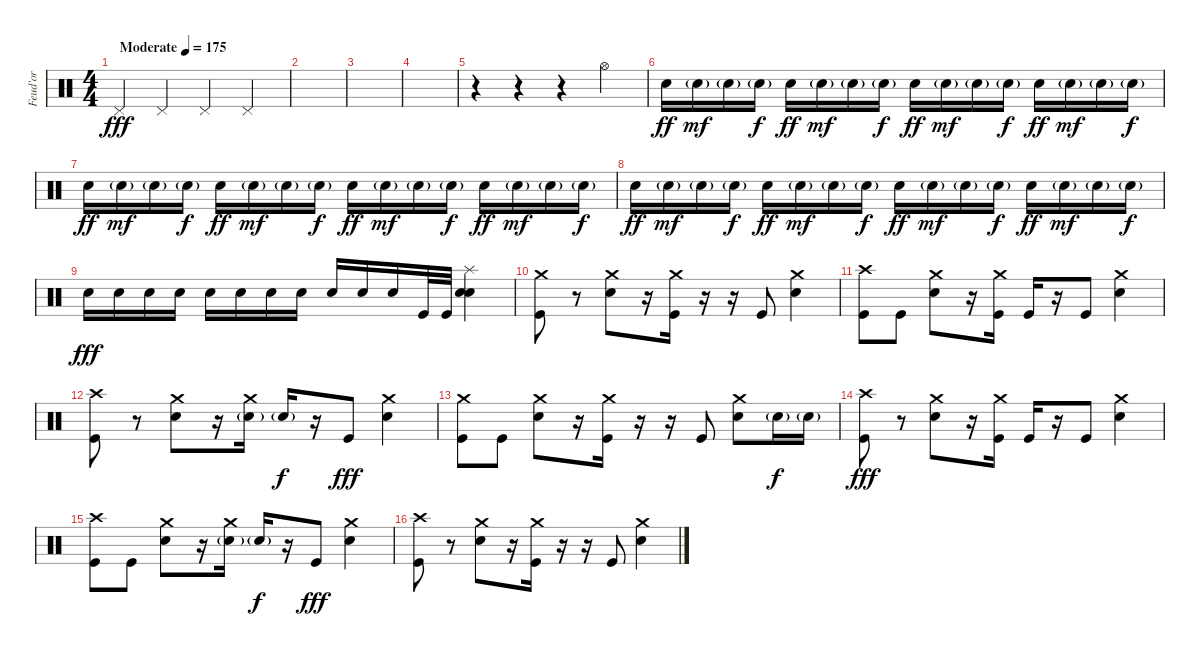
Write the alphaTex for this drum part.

\track ("Feud'or" "Feud'or") {instrument percussion}
\staff {score}
\articulation defaults
\ts (4 4)
\tempo (175 "Moderate")
\clef neutral
\ks c "Pedal Hi-Hat (hit)".4{dy fff} "Pedal Hi-Hat (hit)".4 "Pedal Hi-Hat (hit)".4 "Pedal Hi-Hat (hit)".4
|
|
|
|
r.4 r.4 r.4 "Hi-Hat (open)".4 |
"Electric Snare (hit)".16{dy ff} "Electric Snare (hit)"{g}.16{dy mf} "Electric Snare (hit)"{g}.16 "Electric Snare (hit)"{g}.16{dy f} "Electric Snare (hit)".16{dy ff} "Electric Snare (hit)"{g}.16{dy mf} "Electric Snare (hit)"{g}.16 "Electric Snare (hit)"{g}.16{dy f} "Electric Snare (hit)".16{dy ff} "Electric Snare (hit)"{g}.16{dy mf} "Electric Snare (hit)"{g}.16 "Electric Snare (hit)"{g}.16{dy f} "Electric Snare (hit)".16{dy ff} "Electric Snare (hit)"{g}.16{dy mf} "Electric Snare (hit)"{g}.16 "Electric Snare (hit)"{g}.16{dy f} |
"Electric Snare (hit)".16{dy ff} "Electric Snare (hit)"{g}.16{dy mf} "Electric Snare (hit)"{g}.16 "Electric Snare (hit)"{g}.16{dy f} "Electric Snare (hit)".16{dy ff} "Electric Snare (hit)"{g}.16{dy mf} "Electric Snare (hit)"{g}.16 "Electric Snare (hit)"{g}.16{dy f} "Electric Snare (hit)".16{dy ff} "Electric Snare (hit)"{g}.16{dy mf} "Electric Snare (hit)"{g}.16 "Electric Snare (hit)"{g}.16{dy f} "Electric Snare (hit)".16{dy ff} "Electric Snare (hit)"{g}.16{dy mf} "Electric Snare (hit)"{g}.16 "Electric Snare (hit)"{g}.16{dy f} |
"Electric Snare (hit)".16{dy ff} "Electric Snare (hit)"{g}.16{dy mf} "Electric Snare (hit)"{g}.16 "Electric Snare (hit)"{g}.16{dy f} "Electric Snare (hit)".16{dy ff} "Electric Snare (hit)"{g}.16{dy mf} "Electric Snare (hit)"{g}.16 "Electric Snare (hit)"{g}.16{dy f} "Electric Snare (hit)".16{dy ff} "Electric Snare (hit)"{g}.16{dy mf} "Electric Snare (hit)"{g}.16 "Electric Snare (hit)"{g}.16{dy f} "Electric Snare (hit)".16{dy ff} "Electric Snare (hit)"{g}.16{dy mf} "Electric Snare (hit)"{g}.16 "Electric Snare (hit)"{g}.16{dy f} |
"Electric Snare (hit)".16{dy fff} "Electric Snare (hit)".16 "Electric Snare (hit)".16 "Electric Snare (hit)".16 "Electric Snare (hit)".16 "Electric Snare (hit)".16 "Electric Snare (hit)".16 "Electric Snare (hit)".16 "Electric Snare (hit)".16 "Electric Snare (hit)".16 "Electric Snare (hit)".16 "Kick (hit)".32 "Kick (hit)".32 ("Splash (hit)" "Electric Snare (hit)" "Snare (hit) 2").4 |
("Crash medium (hit)" "Kick (hit)").8 r.8 ("Crash medium (hit)" "Snare (hit) 2").8 r.16 ("Crash medium (hit)" "Kick (hit)").16 r.16 r.16 "Kick (hit)".8 ("Crash medium (hit)" "Snare (hit) 2").4 |
("Crash high (hit)" "Kick (hit)").8 "Kick (hit)".8 ("Crash medium (hit)" "Snare (hit) 2").8 r.16 ("Crash medium (hit)" "Kick (hit)").16 "Kick (hit)".16 r.16 "Kick (hit)".8 ("Crash medium (hit)" "Snare (hit) 2").4 |
("Crash high (hit)" "Kick (hit)").8 r.8 ("Crash medium (hit)" "Snare (hit) 2").8 r.16 ("Crash medium (hit)" "Snare (hit) 2"{g}).16 "Snare (hit) 2"{g}.16{dy f} r.16 "Kick (hit)".8{dy fff} ("Crash medium (hit)" "Snare (hit) 2").4 |
("Crash medium (hit)" "Kick (hit)").8 "Kick (hit)".8 ("Crash medium (hit)" "Snare (hit) 2").8 r.16 ("Crash medium (hit)" "Kick (hit)").16 r.16 r.16 "Kick (hit)".8 ("Crash medium (hit)" "Snare (hit) 2").8 "Snare (hit) 2"{g}.16{dy f} "Snare (hit) 2"{g}.16 |
("Crash high (hit)" "Kick (hit)").8{dy fff} r.8 ("Crash medium (hit)" "Snare (hit) 2").8 r.16 ("Crash medium (hit)" "Kick (hit)").16 "Kick (hit)".16 r.16 "Kick (hit)".8 ("Crash medium (hit)" "Snare (hit) 2").4 |
("Crash high (hit)" "Kick (hit)").8 "Kick (hit)".8 ("Crash medium (hit)" "Snare (hit) 2").8 r.16 ("Crash medium (hit)" "Snare (hit) 2"{g}).16 "Snare (hit) 2"{g}.16{dy f} r.16 "Kick (hit)".8{dy fff} ("Crash medium (hit)" "Snare (hit) 2").4 |
("Crash high (hit)" "Kick (hit)").8 r.8 ("Crash medium (hit)" "Snare (hit) 2").8 r.16 ("Crash medium (hit)" "Kick (hit)").16 r.16 r.16 "Kick (hit)".8 ("Crash medium (hit)" "Snare (hit) 2").4
